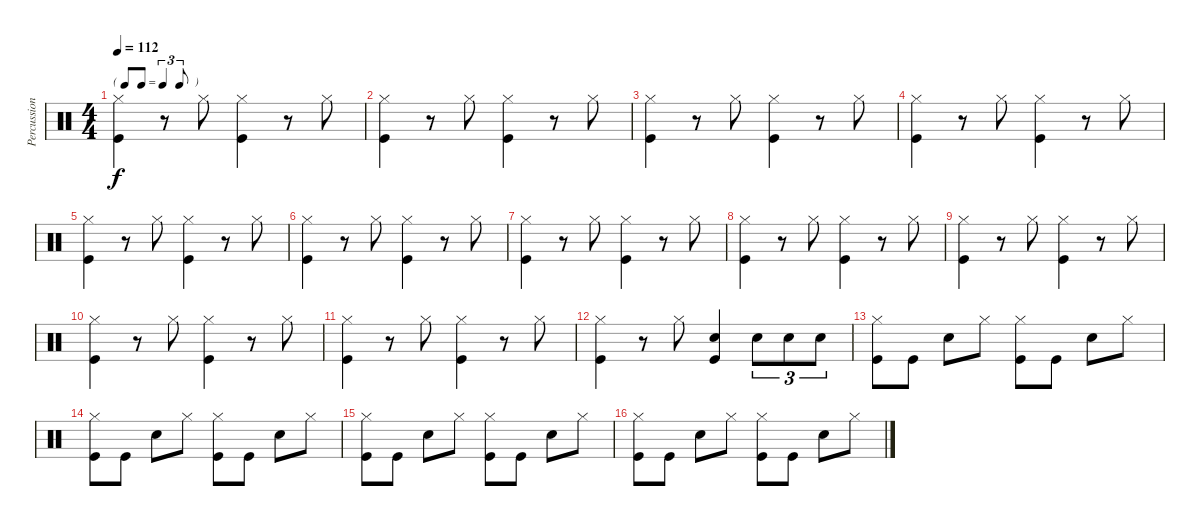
\track ("Percussion" "Percussion") {instrument percussion}
\staff {score}
\articulation defaults
\ts (4 4)
\tf triplet8th
\tempo 112
\clef neutral
\ks c
("Hi-Hat (closed)" "Kick (hit)").4{dy f} r.8 "Hi-Hat (closed)".8 ("Hi-Hat (closed)" "Kick (hit)").4 r.8 "Hi-Hat (closed)".8 |
("Hi-Hat (closed)" "Kick (hit)").4 r.8 "Hi-Hat (closed)".8 ("Hi-Hat (closed)" "Kick (hit)").4 r.8 "Hi-Hat (closed)".8 |
("Hi-Hat (closed)" "Kick (hit)").4 r.8 "Hi-Hat (closed)".8 ("Hi-Hat (closed)" "Kick (hit)").4 r.8 "Hi-Hat (closed)".8 |
("Hi-Hat (closed)" "Kick (hit)").4 r.8 "Hi-Hat (closed)".8 ("Hi-Hat (closed)" "Kick (hit)").4 r.8 "Hi-Hat (closed)".8 |
("Hi-Hat (closed)" "Kick (hit)").4 r.8 "Hi-Hat (closed)".8 ("Hi-Hat (closed)" "Kick (hit)").4 r.8 "Hi-Hat (closed)".8 |
("Hi-Hat (closed)" "Kick (hit)").4 r.8 "Hi-Hat (closed)".8 ("Hi-Hat (closed)" "Kick (hit)").4 r.8 "Hi-Hat (closed)".8 |
("Hi-Hat (closed)" "Kick (hit)").4 r.8 "Hi-Hat (closed)".8 ("Hi-Hat (closed)" "Kick (hit)").4 r.8 "Hi-Hat (closed)".8 |
("Hi-Hat (closed)" "Kick (hit)").4 r.8 "Hi-Hat (closed)".8 ("Hi-Hat (closed)" "Kick (hit)").4 r.8 "Hi-Hat (closed)".8 |
("Hi-Hat (closed)" "Kick (hit)").4 r.8 "Hi-Hat (closed)".8 ("Hi-Hat (closed)" "Kick (hit)").4 r.8 "Hi-Hat (closed)".8 |
("Hi-Hat (closed)" "Kick (hit)").4 r.8 "Hi-Hat (closed)".8 ("Hi-Hat (closed)" "Kick (hit)").4 r.8 "Hi-Hat (closed)".8 |
("Hi-Hat (closed)" "Kick (hit)").4 r.8 "Hi-Hat (closed)".8 ("Hi-Hat (closed)" "Kick (hit)").4 r.8 "Hi-Hat (closed)".8 |
("Hi-Hat (closed)" "Kick (hit)").4 r.8 "Hi-Hat (closed)".8 ("Snare (hit) 2" "Kick (hit)").4 "Snare (hit) 2".8{tu (3 2)} "Snare (hit) 2".8{tu (3 2)} "Snare (hit) 2".8{tu (3 2)} |
("Hi-Hat (closed)" "Kick (hit)").8 "Kick (hit)".8 "Snare (hit) 2".8 "Hi-Hat (closed)".8 ("Hi-Hat (closed)" "Kick (hit)").8 "Kick (hit)".8 "Snare (hit) 2".8 "Hi-Hat (closed)".8 |
("Hi-Hat (closed)" "Kick (hit)").8 "Kick (hit)".8 "Snare (hit) 2".8 "Hi-Hat (closed)".8 ("Hi-Hat (closed)" "Kick (hit)").8 "Kick (hit)".8 "Snare (hit) 2".8 "Hi-Hat (closed)".8 |
("Hi-Hat (closed)" "Kick (hit)").8 "Kick (hit)".8 "Snare (hit) 2".8 "Hi-Hat (closed)".8 ("Hi-Hat (closed)" "Kick (hit)").8 "Kick (hit)".8 "Snare (hit) 2".8 "Hi-Hat (closed)".8 |
("Hi-Hat (closed)" "Kick (hit)").8 "Kick (hit)".8 "Snare (hit) 2".8 "Hi-Hat (closed)".8 ("Hi-Hat (closed)" "Kick (hit)").8 "Kick (hit)".8 "Snare (hit) 2".8 "Hi-Hat (closed)".8
